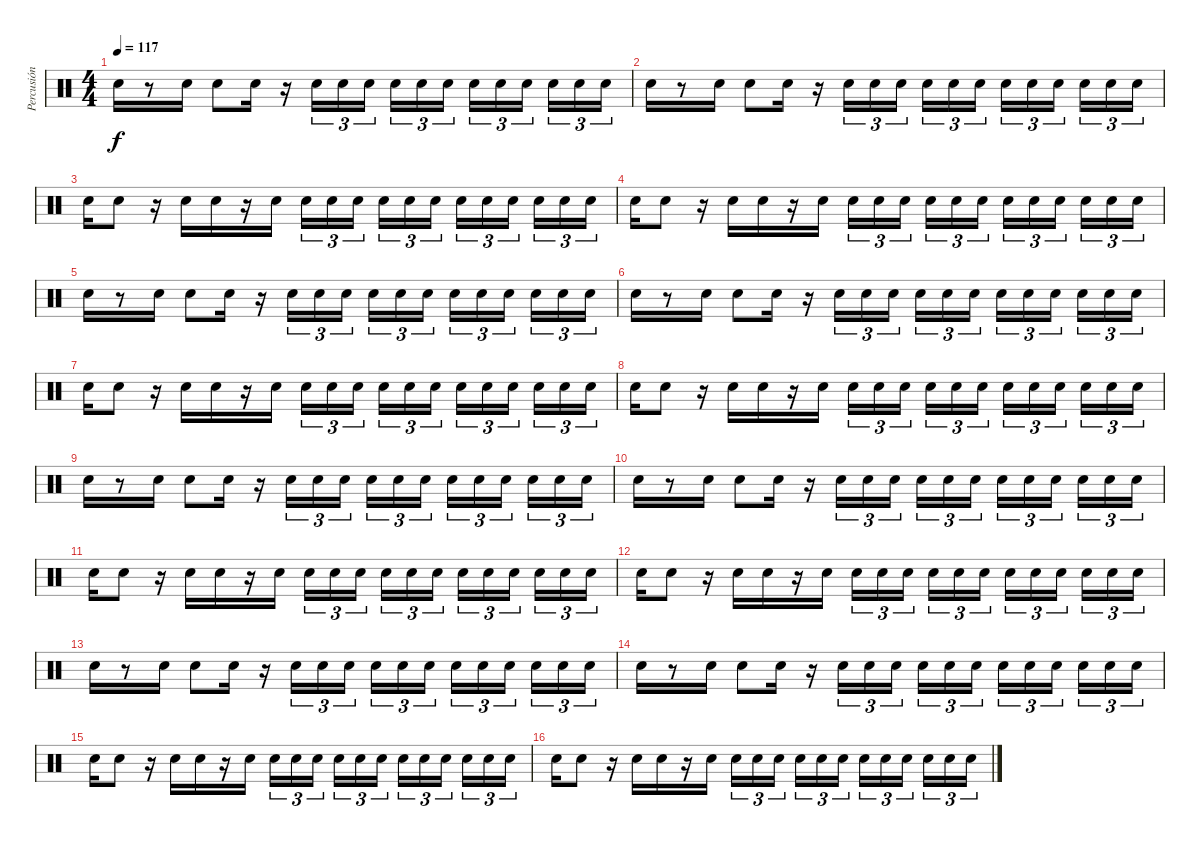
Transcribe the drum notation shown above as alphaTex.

\track ("Percusión" "Percusión") {instrument percussion}
\staff {score}
\articulation defaults
\ts (4 4)
\tempo 117
\clef neutral
\ks c "Snare (hit) 2".16{dy f}
r.8 "Snare (hit) 2".16 "Snare (hit) 2".8 "Snare (hit) 2".16 r.16 "Snare (hit) 2".16{tu (3 2)} "Snare (hit) 2".16{tu (3 2)} "Snare (hit) 2".16{tu (3 2)} "Snare (hit) 2".16{tu (3 2)} "Snare (hit) 2".16{tu (3 2)} "Snare (hit) 2".16{tu (3 2)} "Snare (hit) 2".16{tu (3 2)} "Snare (hit) 2".16{tu (3 2)} "Snare (hit) 2".16{tu (3 2)} "Snare (hit) 2".16{tu (3 2)} "Snare (hit) 2".16{tu (3 2)} "Snare (hit) 2".16{tu (3 2)} |
"Snare (hit) 2".16 r.8 "Snare (hit) 2".16 "Snare (hit) 2".8 "Snare (hit) 2".16 r.16 "Snare (hit) 2".16{tu (3 2)} "Snare (hit) 2".16{tu (3 2)} "Snare (hit) 2".16{tu (3 2)} "Snare (hit) 2".16{tu (3 2)} "Snare (hit) 2".16{tu (3 2)} "Snare (hit) 2".16{tu (3 2)} "Snare (hit) 2".16{tu (3 2)} "Snare (hit) 2".16{tu (3 2)} "Snare (hit) 2".16{tu (3 2)} "Snare (hit) 2".16{tu (3 2)} "Snare (hit) 2".16{tu (3 2)} "Snare (hit) 2".16{tu (3 2)} |
"Snare (hit) 2".16 "Snare (hit) 2".8 r.16 "Snare (hit) 2".16 "Snare (hit) 2".16 r.16 "Snare (hit) 2".16 "Snare (hit) 2".16{tu (3 2)} "Snare (hit) 2".16{tu (3 2)} "Snare (hit) 2".16{tu (3 2)} "Snare (hit) 2".16{tu (3 2)} "Snare (hit) 2".16{tu (3 2)} "Snare (hit) 2".16{tu (3 2)} "Snare (hit) 2".16{tu (3 2)} "Snare (hit) 2".16{tu (3 2)} "Snare (hit) 2".16{tu (3 2)} "Snare (hit) 2".16{tu (3 2)} "Snare (hit) 2".16{tu (3 2)} "Snare (hit) 2".16{tu (3 2)} |
"Snare (hit) 2".16 "Snare (hit) 2".8 r.16 "Snare (hit) 2".16 "Snare (hit) 2".16 r.16 "Snare (hit) 2".16 "Snare (hit) 2".16{tu (3 2)} "Snare (hit) 2".16{tu (3 2)} "Snare (hit) 2".16{tu (3 2)} "Snare (hit) 2".16{tu (3 2)} "Snare (hit) 2".16{tu (3 2)} "Snare (hit) 2".16{tu (3 2)} "Snare (hit) 2".16{tu (3 2)} "Snare (hit) 2".16{tu (3 2)} "Snare (hit) 2".16{tu (3 2)} "Snare (hit) 2".16{tu (3 2)} "Snare (hit) 2".16{tu (3 2)} "Snare (hit) 2".16{tu (3 2)} |
"Snare (hit) 2".16 r.8 "Snare (hit) 2".16 "Snare (hit) 2".8 "Snare (hit) 2".16 r.16 "Snare (hit) 2".16{tu (3 2)} "Snare (hit) 2".16{tu (3 2)} "Snare (hit) 2".16{tu (3 2)} "Snare (hit) 2".16{tu (3 2)} "Snare (hit) 2".16{tu (3 2)} "Snare (hit) 2".16{tu (3 2)} "Snare (hit) 2".16{tu (3 2)} "Snare (hit) 2".16{tu (3 2)} "Snare (hit) 2".16{tu (3 2)} "Snare (hit) 2".16{tu (3 2)} "Snare (hit) 2".16{tu (3 2)} "Snare (hit) 2".16{tu (3 2)} |
"Snare (hit) 2".16 r.8 "Snare (hit) 2".16 "Snare (hit) 2".8 "Snare (hit) 2".16 r.16 "Snare (hit) 2".16{tu (3 2)} "Snare (hit) 2".16{tu (3 2)} "Snare (hit) 2".16{tu (3 2)} "Snare (hit) 2".16{tu (3 2)} "Snare (hit) 2".16{tu (3 2)} "Snare (hit) 2".16{tu (3 2)} "Snare (hit) 2".16{tu (3 2)} "Snare (hit) 2".16{tu (3 2)} "Snare (hit) 2".16{tu (3 2)} "Snare (hit) 2".16{tu (3 2)} "Snare (hit) 2".16{tu (3 2)} "Snare (hit) 2".16{tu (3 2)} |
"Snare (hit) 2".16 "Snare (hit) 2".8 r.16 "Snare (hit) 2".16 "Snare (hit) 2".16 r.16 "Snare (hit) 2".16 "Snare (hit) 2".16{tu (3 2)} "Snare (hit) 2".16{tu (3 2)} "Snare (hit) 2".16{tu (3 2)} "Snare (hit) 2".16{tu (3 2)} "Snare (hit) 2".16{tu (3 2)} "Snare (hit) 2".16{tu (3 2)} "Snare (hit) 2".16{tu (3 2)} "Snare (hit) 2".16{tu (3 2)} "Snare (hit) 2".16{tu (3 2)} "Snare (hit) 2".16{tu (3 2)} "Snare (hit) 2".16{tu (3 2)} "Snare (hit) 2".16{tu (3 2)} |
"Snare (hit) 2".16 "Snare (hit) 2".8 r.16 "Snare (hit) 2".16 "Snare (hit) 2".16 r.16 "Snare (hit) 2".16 "Snare (hit) 2".16{tu (3 2)} "Snare (hit) 2".16{tu (3 2)} "Snare (hit) 2".16{tu (3 2)} "Snare (hit) 2".16{tu (3 2)} "Snare (hit) 2".16{tu (3 2)} "Snare (hit) 2".16{tu (3 2)} "Snare (hit) 2".16{tu (3 2)} "Snare (hit) 2".16{tu (3 2)} "Snare (hit) 2".16{tu (3 2)} "Snare (hit) 2".16{tu (3 2)} "Snare (hit) 2".16{tu (3 2)} "Snare (hit) 2".16{tu (3 2)} |
"Snare (hit) 2".16 r.8 "Snare (hit) 2".16 "Snare (hit) 2".8 "Snare (hit) 2".16 r.16 "Snare (hit) 2".16{tu (3 2)} "Snare (hit) 2".16{tu (3 2)} "Snare (hit) 2".16{tu (3 2)} "Snare (hit) 2".16{tu (3 2)} "Snare (hit) 2".16{tu (3 2)} "Snare (hit) 2".16{tu (3 2)} "Snare (hit) 2".16{tu (3 2)} "Snare (hit) 2".16{tu (3 2)} "Snare (hit) 2".16{tu (3 2)} "Snare (hit) 2".16{tu (3 2)} "Snare (hit) 2".16{tu (3 2)} "Snare (hit) 2".16{tu (3 2)} |
"Snare (hit) 2".16 r.8 "Snare (hit) 2".16 "Snare (hit) 2".8 "Snare (hit) 2".16 r.16 "Snare (hit) 2".16{tu (3 2)} "Snare (hit) 2".16{tu (3 2)} "Snare (hit) 2".16{tu (3 2)} "Snare (hit) 2".16{tu (3 2)} "Snare (hit) 2".16{tu (3 2)} "Snare (hit) 2".16{tu (3 2)} "Snare (hit) 2".16{tu (3 2)} "Snare (hit) 2".16{tu (3 2)} "Snare (hit) 2".16{tu (3 2)} "Snare (hit) 2".16{tu (3 2)} "Snare (hit) 2".16{tu (3 2)} "Snare (hit) 2".16{tu (3 2)} |
"Snare (hit) 2".16 "Snare (hit) 2".8 r.16 "Snare (hit) 2".16 "Snare (hit) 2".16 r.16 "Snare (hit) 2".16 "Snare (hit) 2".16{tu (3 2)} "Snare (hit) 2".16{tu (3 2)} "Snare (hit) 2".16{tu (3 2)} "Snare (hit) 2".16{tu (3 2)} "Snare (hit) 2".16{tu (3 2)} "Snare (hit) 2".16{tu (3 2)} "Snare (hit) 2".16{tu (3 2)} "Snare (hit) 2".16{tu (3 2)} "Snare (hit) 2".16{tu (3 2)} "Snare (hit) 2".16{tu (3 2)} "Snare (hit) 2".16{tu (3 2)} "Snare (hit) 2".16{tu (3 2)} |
"Snare (hit) 2".16 "Snare (hit) 2".8 r.16 "Snare (hit) 2".16 "Snare (hit) 2".16 r.16 "Snare (hit) 2".16 "Snare (hit) 2".16{tu (3 2)} "Snare (hit) 2".16{tu (3 2)} "Snare (hit) 2".16{tu (3 2)} "Snare (hit) 2".16{tu (3 2)} "Snare (hit) 2".16{tu (3 2)} "Snare (hit) 2".16{tu (3 2)} "Snare (hit) 2".16{tu (3 2)} "Snare (hit) 2".16{tu (3 2)} "Snare (hit) 2".16{tu (3 2)} "Snare (hit) 2".16{tu (3 2)} "Snare (hit) 2".16{tu (3 2)} "Snare (hit) 2".16{tu (3 2)} |
"Snare (hit) 2".16 r.8 "Snare (hit) 2".16 "Snare (hit) 2".8 "Snare (hit) 2".16 r.16 "Snare (hit) 2".16{tu (3 2)} "Snare (hit) 2".16{tu (3 2)} "Snare (hit) 2".16{tu (3 2)} "Snare (hit) 2".16{tu (3 2)} "Snare (hit) 2".16{tu (3 2)} "Snare (hit) 2".16{tu (3 2)} "Snare (hit) 2".16{tu (3 2)} "Snare (hit) 2".16{tu (3 2)} "Snare (hit) 2".16{tu (3 2)} "Snare (hit) 2".16{tu (3 2)} "Snare (hit) 2".16{tu (3 2)} "Snare (hit) 2".16{tu (3 2)} |
"Snare (hit) 2".16 r.8 "Snare (hit) 2".16 "Snare (hit) 2".8 "Snare (hit) 2".16 r.16 "Snare (hit) 2".16{tu (3 2)} "Snare (hit) 2".16{tu (3 2)} "Snare (hit) 2".16{tu (3 2)} "Snare (hit) 2".16{tu (3 2)} "Snare (hit) 2".16{tu (3 2)} "Snare (hit) 2".16{tu (3 2)} "Snare (hit) 2".16{tu (3 2)} "Snare (hit) 2".16{tu (3 2)} "Snare (hit) 2".16{tu (3 2)} "Snare (hit) 2".16{tu (3 2)} "Snare (hit) 2".16{tu (3 2)} "Snare (hit) 2".16{tu (3 2)} |
"Snare (hit) 2".16 "Snare (hit) 2".8 r.16 "Snare (hit) 2".16 "Snare (hit) 2".16 r.16 "Snare (hit) 2".16 "Snare (hit) 2".16{tu (3 2)} "Snare (hit) 2".16{tu (3 2)} "Snare (hit) 2".16{tu (3 2)} "Snare (hit) 2".16{tu (3 2)} "Snare (hit) 2".16{tu (3 2)} "Snare (hit) 2".16{tu (3 2)} "Snare (hit) 2".16{tu (3 2)} "Snare (hit) 2".16{tu (3 2)} "Snare (hit) 2".16{tu (3 2)} "Snare (hit) 2".16{tu (3 2)} "Snare (hit) 2".16{tu (3 2)} "Snare (hit) 2".16{tu (3 2)} |
"Snare (hit) 2".16 "Snare (hit) 2".8 r.16 "Snare (hit) 2".16 "Snare (hit) 2".16 r.16 "Snare (hit) 2".16 "Snare (hit) 2".16{tu (3 2)} "Snare (hit) 2".16{tu (3 2)} "Snare (hit) 2".16{tu (3 2)} "Snare (hit) 2".16{tu (3 2)} "Snare (hit) 2".16{tu (3 2)} "Snare (hit) 2".16{tu (3 2)} "Snare (hit) 2".16{tu (3 2)} "Snare (hit) 2".16{tu (3 2)} "Snare (hit) 2".16{tu (3 2)} "Snare (hit) 2".16{tu (3 2)} "Snare (hit) 2".16{tu (3 2)} "Snare (hit) 2".16{tu (3 2)}
